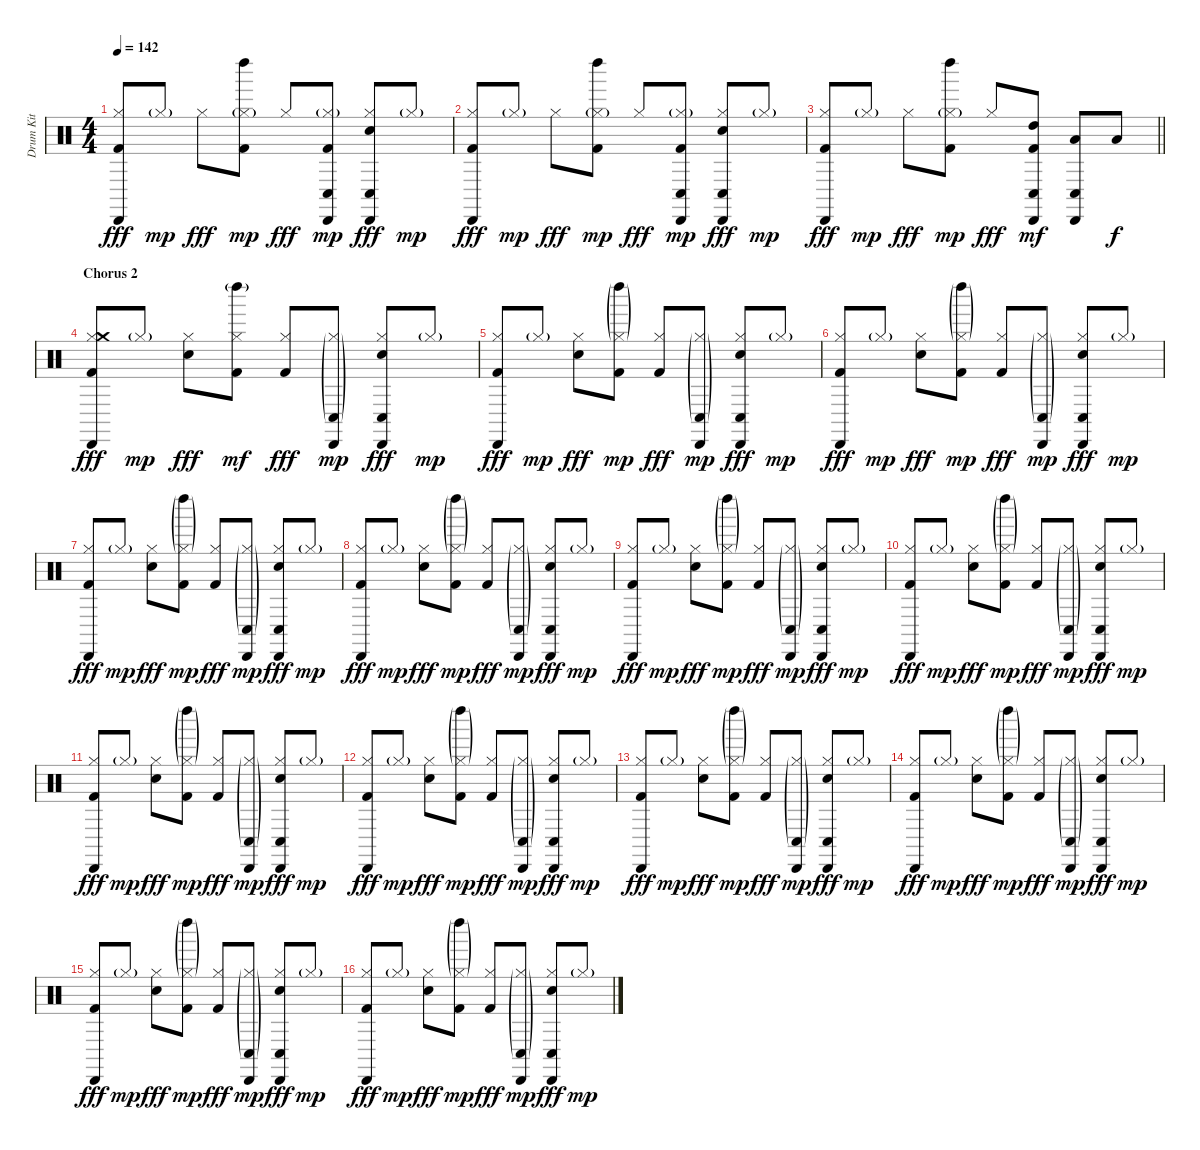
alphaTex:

\track ("Drum Kit" "Drum Kit") {instrument percussion}
\staff {score}
\articulation defaults
\ts (4 4)
\tempo 142
\clef neutral
\ks c
("Cabasa (hit)" "Kick (hit) 2" "Hi-Hat (closed)").8{dy fff} "Hi-Hat (closed)"{g}.8{dy mp} "Hi-Hat (closed)".8{dy fff} ("Kick (hit) 2" "Hi-Hat (closed)"{g} "Left Maraca (hit)").8{dy mp} "Hi-Hat (closed)".8{dy fff} ("Kick (hit) 2" "Conga low (hit)" "Hi-Hat (closed)"{g} "Cabasa (hit)").8{dy mp} ("Conga low (hit)" "Snare (hit) 2" "Cabasa (hit)" "Hi-Hat (closed)").8{dy fff} "Hi-Hat (closed)"{g}.8{dy mp} |
("Cabasa (hit)" "Kick (hit) 2" "Hi-Hat (closed)").8{dy fff} "Hi-Hat (closed)"{g}.8{dy mp} "Hi-Hat (closed)".8{dy fff} ("Kick (hit) 2" "Hi-Hat (closed)"{g} "Left Maraca (hit)").8{dy mp} "Hi-Hat (closed)".8{dy fff} ("Kick (hit) 2" "Conga low (hit)" "Hi-Hat (closed)"{g} "Cabasa (hit)").8{dy mp} ("Conga low (hit)" "Snare (hit) 2" "Cabasa (hit)" "Hi-Hat (closed)").8{dy fff} "Hi-Hat (closed)"{g}.8{dy mp} |
\barLineRight lightlight
("Cabasa (hit)" "Kick (hit) 2" "Hi-Hat (closed)").8{dy fff} "Hi-Hat (closed)"{g}.8{dy mp} "Hi-Hat (closed)".8{dy fff} ("Kick (hit) 2" "Hi-Hat (closed)"{g} "Left Maraca (hit)").8{dy mp} "Hi-Hat (closed)".8{dy fff} ("High Tom (hit)" "Cabasa (hit)" "Kick (hit) 2" "Conga low (hit)").8{dy mf} ("Conga low (hit)" "Cabasa (hit)" "Low Tom (hit)").8 "Low Floor Tom (hit)".8{dy f} |
\section ("" "Chorus 2")
("Kick (hit) 2" "Hi-Hat (closed)" "Cabasa (hit)" "Crash medium (hit)").8{dy fff} "Hi-Hat (closed)"{g}.8{dy mp} ("Snare (hit) 2" "Hi-Hat (closed)").8{dy fff} ("Kick (hit) 2" "Hi-Hat (closed)" "Left Maraca (hit)"{g}).8{dy mf} ("Kick (hit) 2" "Hi-Hat (closed)").8{dy fff} ("Cabasa (hit)" "Conga low (hit)"{g} "Hi-Hat (closed)"{g}).8{dy mp} ("Conga low (hit)" "Snare (hit) 2" "Cabasa (hit)" "Hi-Hat (closed)").8{dy fff} "Hi-Hat (closed)"{g}.8{dy mp} |
("Cabasa (hit)" "Kick (hit) 2" "Hi-Hat (closed)").8{dy fff} "Hi-Hat (closed)"{g}.8{dy mp} ("Snare (hit) 2" "Hi-Hat (closed)").8{dy fff} ("Kick (hit) 2" "Left Maraca (hit)"{g} "Hi-Hat (closed)"{g}).8{dy mp} ("Kick (hit) 2" "Hi-Hat (closed)").8{dy fff} ("Cabasa (hit)" "Conga low (hit)"{g} "Hi-Hat (closed)"{g}).8{dy mp} ("Conga low (hit)" "Snare (hit) 2" "Cabasa (hit)" "Hi-Hat (closed)").8{dy fff} "Hi-Hat (closed)"{g}.8{dy mp} |
("Cabasa (hit)" "Kick (hit) 2" "Hi-Hat (closed)").8{dy fff} "Hi-Hat (closed)"{g}.8{dy mp} ("Snare (hit) 2" "Hi-Hat (closed)").8{dy fff} ("Kick (hit) 2" "Left Maraca (hit)"{g} "Hi-Hat (closed)"{g}).8{dy mp} ("Kick (hit) 2" "Hi-Hat (closed)").8{dy fff} ("Cabasa (hit)" "Conga low (hit)"{g} "Hi-Hat (closed)"{g}).8{dy mp} ("Conga low (hit)" "Snare (hit) 2" "Cabasa (hit)" "Hi-Hat (closed)").8{dy fff} "Hi-Hat (closed)"{g}.8{dy mp} |
("Cabasa (hit)" "Kick (hit) 2" "Hi-Hat (closed)").8{dy fff} "Hi-Hat (closed)"{g}.8{dy mp} ("Snare (hit) 2" "Hi-Hat (closed)").8{dy fff} ("Kick (hit) 2" "Left Maraca (hit)"{g} "Hi-Hat (closed)"{g}).8{dy mp} ("Kick (hit) 2" "Hi-Hat (closed)").8{dy fff} ("Cabasa (hit)" "Conga low (hit)"{g} "Hi-Hat (closed)"{g}).8{dy mp} ("Conga low (hit)" "Snare (hit) 2" "Cabasa (hit)" "Hi-Hat (closed)").8{dy fff} "Hi-Hat (closed)"{g}.8{dy mp} |
("Cabasa (hit)" "Kick (hit) 2" "Hi-Hat (closed)").8{dy fff} "Hi-Hat (closed)"{g}.8{dy mp} ("Snare (hit) 2" "Hi-Hat (closed)").8{dy fff} ("Kick (hit) 2" "Left Maraca (hit)"{g} "Hi-Hat (closed)"{g}).8{dy mp} ("Kick (hit) 2" "Hi-Hat (closed)").8{dy fff} ("Cabasa (hit)" "Conga low (hit)"{g} "Hi-Hat (closed)"{g}).8{dy mp} ("Conga low (hit)" "Snare (hit) 2" "Cabasa (hit)" "Hi-Hat (closed)").8{dy fff} "Hi-Hat (closed)"{g}.8{dy mp} |
("Cabasa (hit)" "Kick (hit) 2" "Hi-Hat (closed)").8{dy fff} "Hi-Hat (closed)"{g}.8{dy mp} ("Snare (hit) 2" "Hi-Hat (closed)").8{dy fff} ("Kick (hit) 2" "Left Maraca (hit)"{g} "Hi-Hat (closed)"{g}).8{dy mp} ("Kick (hit) 2" "Hi-Hat (closed)").8{dy fff} ("Cabasa (hit)" "Conga low (hit)"{g} "Hi-Hat (closed)"{g}).8{dy mp} ("Conga low (hit)" "Snare (hit) 2" "Cabasa (hit)" "Hi-Hat (closed)").8{dy fff} "Hi-Hat (closed)"{g}.8{dy mp} |
("Cabasa (hit)" "Kick (hit) 2" "Hi-Hat (closed)").8{dy fff} "Hi-Hat (closed)"{g}.8{dy mp} ("Snare (hit) 2" "Hi-Hat (closed)").8{dy fff} ("Kick (hit) 2" "Left Maraca (hit)"{g} "Hi-Hat (closed)"{g}).8{dy mp} ("Kick (hit) 2" "Hi-Hat (closed)").8{dy fff} ("Cabasa (hit)" "Conga low (hit)"{g} "Hi-Hat (closed)"{g}).8{dy mp} ("Conga low (hit)" "Snare (hit) 2" "Cabasa (hit)" "Hi-Hat (closed)").8{dy fff} "Hi-Hat (closed)"{g}.8{dy mp} |
("Cabasa (hit)" "Kick (hit) 2" "Hi-Hat (closed)").8{dy fff} "Hi-Hat (closed)"{g}.8{dy mp} ("Snare (hit) 2" "Hi-Hat (closed)").8{dy fff} ("Kick (hit) 2" "Left Maraca (hit)"{g} "Hi-Hat (closed)"{g}).8{dy mp} ("Kick (hit) 2" "Hi-Hat (closed)").8{dy fff} ("Cabasa (hit)" "Conga low (hit)"{g} "Hi-Hat (closed)"{g}).8{dy mp} ("Conga low (hit)" "Snare (hit) 2" "Cabasa (hit)" "Hi-Hat (closed)").8{dy fff} "Hi-Hat (closed)"{g}.8{dy mp} |
("Cabasa (hit)" "Kick (hit) 2" "Hi-Hat (closed)").8{dy fff} "Hi-Hat (closed)"{g}.8{dy mp} ("Snare (hit) 2" "Hi-Hat (closed)").8{dy fff} ("Kick (hit) 2" "Left Maraca (hit)"{g} "Hi-Hat (closed)"{g}).8{dy mp} ("Kick (hit) 2" "Hi-Hat (closed)").8{dy fff} ("Cabasa (hit)" "Conga low (hit)"{g} "Hi-Hat (closed)"{g}).8{dy mp} ("Conga low (hit)" "Snare (hit) 2" "Cabasa (hit)" "Hi-Hat (closed)").8{dy fff} "Hi-Hat (closed)"{g}.8{dy mp} |
("Cabasa (hit)" "Kick (hit) 2" "Hi-Hat (closed)").8{dy fff} "Hi-Hat (closed)"{g}.8{dy mp} ("Snare (hit) 2" "Hi-Hat (closed)").8{dy fff} ("Kick (hit) 2" "Left Maraca (hit)"{g} "Hi-Hat (closed)"{g}).8{dy mp} ("Kick (hit) 2" "Hi-Hat (closed)").8{dy fff} ("Cabasa (hit)" "Conga low (hit)"{g} "Hi-Hat (closed)"{g}).8{dy mp} ("Conga low (hit)" "Snare (hit) 2" "Cabasa (hit)" "Hi-Hat (closed)").8{dy fff} "Hi-Hat (closed)"{g}.8{dy mp} |
("Cabasa (hit)" "Kick (hit) 2" "Hi-Hat (closed)").8{dy fff} "Hi-Hat (closed)"{g}.8{dy mp} ("Snare (hit) 2" "Hi-Hat (closed)").8{dy fff} ("Kick (hit) 2" "Left Maraca (hit)"{g} "Hi-Hat (closed)"{g}).8{dy mp} ("Kick (hit) 2" "Hi-Hat (closed)").8{dy fff} ("Cabasa (hit)" "Conga low (hit)"{g} "Hi-Hat (closed)"{g}).8{dy mp} ("Conga low (hit)" "Snare (hit) 2" "Cabasa (hit)" "Hi-Hat (closed)").8{dy fff} "Hi-Hat (closed)"{g}.8{dy mp} |
("Cabasa (hit)" "Kick (hit) 2" "Hi-Hat (closed)").8{dy fff} "Hi-Hat (closed)"{g}.8{dy mp} ("Snare (hit) 2" "Hi-Hat (closed)").8{dy fff} ("Kick (hit) 2" "Left Maraca (hit)"{g} "Hi-Hat (closed)"{g}).8{dy mp} ("Kick (hit) 2" "Hi-Hat (closed)").8{dy fff} ("Cabasa (hit)" "Conga low (hit)"{g} "Hi-Hat (closed)"{g}).8{dy mp} ("Conga low (hit)" "Snare (hit) 2" "Cabasa (hit)" "Hi-Hat (closed)").8{dy fff} "Hi-Hat (closed)"{g}.8{dy mp} |
("Cabasa (hit)" "Kick (hit) 2" "Hi-Hat (closed)").8{dy fff} "Hi-Hat (closed)"{g}.8{dy mp} ("Snare (hit) 2" "Hi-Hat (closed)").8{dy fff} ("Kick (hit) 2" "Left Maraca (hit)"{g} "Hi-Hat (closed)"{g}).8{dy mp} ("Kick (hit) 2" "Hi-Hat (closed)").8{dy fff} ("Cabasa (hit)" "Conga low (hit)"{g} "Hi-Hat (closed)"{g}).8{dy mp} ("Conga low (hit)" "Snare (hit) 2" "Cabasa (hit)" "Hi-Hat (closed)").8{dy fff} "Hi-Hat (closed)"{g}.8{dy mp}
